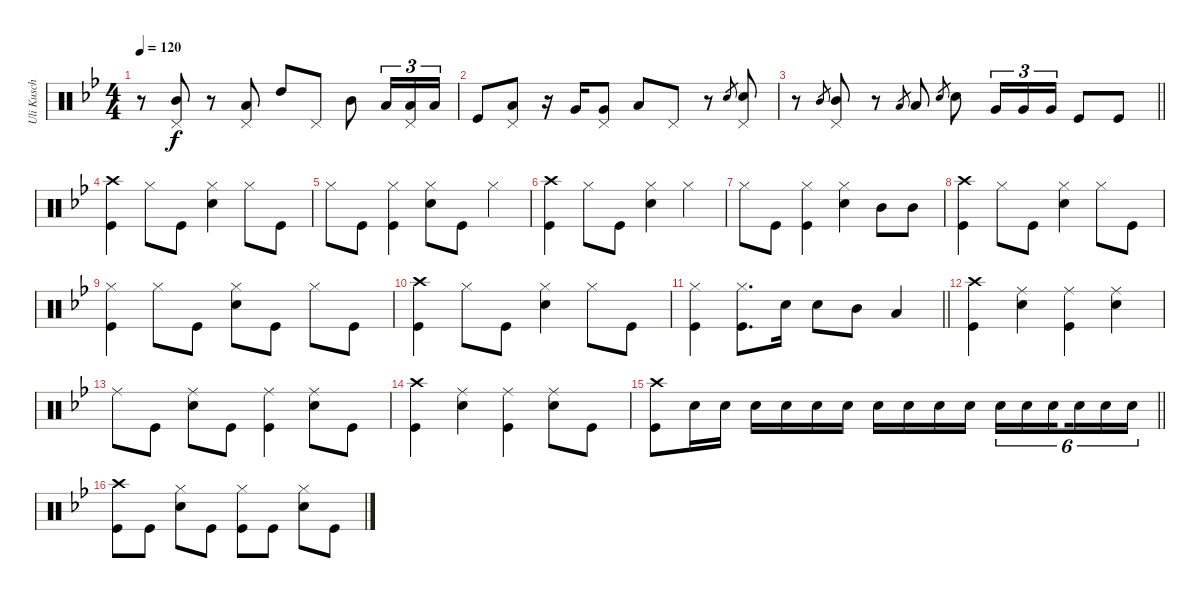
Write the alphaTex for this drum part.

\track ("Uli Kusch" "Uli Kusch") {instrument percussion}
\staff {score}
\articulation defaults
\ts (4 4)
\tempo 120
\clef neutral
\ks gminor
r.8{dy f} ("Mid Tom (hit)" "Pedal Hi-Hat (hit)").8 r.8 ("Low Tom (hit)" "Pedal Hi-Hat (hit)").8 "High Tom (hit)".8 "Pedal Hi-Hat (hit)".8 "Mid Tom (hit)".8 "Low Tom (hit)".16{tu (3 2)} ("Pedal Hi-Hat (hit)" "Low Tom (hit)").16{tu (3 2)} "Low Tom (hit)".16{tu (3 2)} |
"Kick (hit)".8 ("Low Tom (hit)" "Pedal Hi-Hat (hit)").8 r.16 "Very Low Tom (hit)".16 ("Pedal Hi-Hat (hit)" "Very Low Tom (hit)").8 "Low Tom (hit)".8 "Pedal Hi-Hat (hit)".8 r.8 "Snare (hit) 2".8{gr} ("Snare (hit) 2" "Pedal Hi-Hat (hit)").8 |
\barLineRight lightlight
r.8 "Mid Tom (hit)".8{gr} ("Mid Tom (hit)" "Pedal Hi-Hat (hit)").8 r.8 "Low Tom (hit)".8{gr} "Low Tom (hit)".8 "Snare (hit) 2".8{gr} "Snare (hit) 2".8 "Very Low Tom (hit)".16{tu (3 2)} "Very Low Tom (hit)".16{tu (3 2)} "Very Low Tom (hit)".16{tu (3 2)} "Kick (hit)".8 "Kick (hit)".8 |
("Crash high (hit)" "Kick (hit)").4 "Hi-Hat (closed)".8 "Kick (hit)".8 ("Hi-Hat (closed)" "Snare (hit) 2").4 "Hi-Hat (closed)".8 "Kick (hit)".8 |
"Hi-Hat (closed)".8 "Kick (hit)".8 ("Hi-Hat (closed)" "Kick (hit)").4 ("Hi-Hat (closed)" "Snare (hit) 2").8 "Kick (hit)".8 "Hi-Hat (closed)".4 |
("Crash high (hit)" "Kick (hit)").4 "Hi-Hat (closed)".8 "Kick (hit)".8 ("Hi-Hat (closed)" "Snare (hit) 2").4 "Hi-Hat (closed)".4 |
"Hi-Hat (closed)".8 "Kick (hit)".8 ("Hi-Hat (closed)" "Kick (hit)").4 ("Hi-Hat (closed)" "Snare (hit) 2").4 "Mid Tom (hit)".8 "Mid Tom (hit)".8 |
("Crash high (hit)" "Kick (hit)").4 "Hi-Hat (closed)".8 "Kick (hit)".8 ("Hi-Hat (closed)" "Snare (hit) 2").4 "Hi-Hat (closed)".8 "Kick (hit)".8 |
("Hi-Hat (closed)" "Kick (hit)").4 "Hi-Hat (closed)".8 "Kick (hit)".8 ("Hi-Hat (closed)" "Snare (hit) 2").8 "Kick (hit)".8 "Hi-Hat (closed)".8 "Kick (hit)".8 |
("Crash high (hit)" "Kick (hit)").4 "Hi-Hat (closed)".8 "Kick (hit)".8 ("Hi-Hat (closed)" "Snare (hit) 2").4 "Hi-Hat (closed)".8 "Kick (hit)".8 |
\barLineRight lightlight
("Hi-Hat (closed)" "Kick (hit)").4 ("Hi-Hat (closed)" "Kick (hit)").8{d} "Snare (hit) 2".16 "Snare (hit) 2".8 "Mid Tom (hit)".8 "Low Tom (hit)".4 |
("Crash high (hit)" "Kick (hit)").4 ("Ride (middle)" "Snare (hit) 2").4 ("Ride (middle)" "Kick (hit)").4 ("Ride (middle)" "Snare (hit) 2").4 |
"Ride (middle)".8 "Kick (hit)".8 ("Ride (middle)" "Snare (hit) 2").8 "Kick (hit)".8 ("Ride (middle)" "Kick (hit)").4 ("Ride (middle)" "Snare (hit) 2").8 "Kick (hit)".8 |
("Crash high (hit)" "Kick (hit)").4 ("Ride (middle)" "Snare (hit) 2").4 ("Ride (middle)" "Kick (hit)").4 ("Ride (middle)" "Snare (hit) 2").8 "Kick (hit)".8 |
\barLineRight lightlight
("Crash high (hit)" "Kick (hit)").8 "Snare (hit) 2".16 "Snare (hit) 2".16 "Snare (hit) 2".16 "Snare (hit) 2".16 "Snare (hit) 2".16 "Snare (hit) 2".16 "Snare (hit) 2".16 "Snare (hit) 2".16 "Snare (hit) 2".16 "Snare (hit) 2".16 "Snare (hit) 2".16{tu (6 4)} "Snare (hit) 2".16{tu (6 4)} "Snare (hit) 2".16{tu (6 4) beam splitsecondary} "Snare (hit) 2".16{tu (6 4)} "Snare (hit) 2".16{tu (6 4)} "Snare (hit) 2".16{tu (6 4)} |
("Crash high (hit)" "Kick (hit)").8 "Kick (hit)".8 ("Hi-Hat (closed)" "Snare (hit) 2").8 "Kick (hit)".8 ("Hi-Hat (closed)" "Kick (hit)").8 "Kick (hit)".8 ("Hi-Hat (closed)" "Snare (hit) 2").8 "Kick (hit)".8
